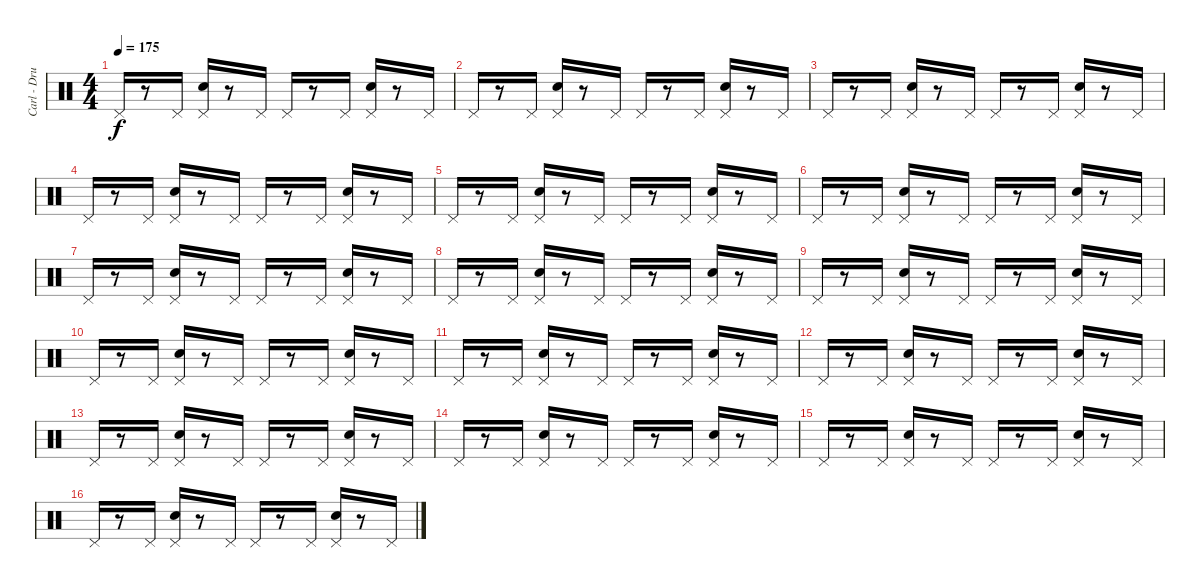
\track ("Carl - Drums II" "Carl - Dru") {instrument percussion}
\staff {score}
\articulation defaults
\ts (4 4)
\tempo 175
\clef neutral
\ks c "Pedal Hi-Hat (hit)".16{dy f}
r.8 "Pedal Hi-Hat (hit)".16 ("Pedal Hi-Hat (hit)" "Electric Snare (hit)").16 r.8 "Pedal Hi-Hat (hit)".16 "Pedal Hi-Hat (hit)".16 r.8 "Pedal Hi-Hat (hit)".16 ("Pedal Hi-Hat (hit)" "Electric Snare (hit)").16 r.8 "Pedal Hi-Hat (hit)".16 |
"Pedal Hi-Hat (hit)".16 r.8 "Pedal Hi-Hat (hit)".16 ("Pedal Hi-Hat (hit)" "Electric Snare (hit)").16 r.8 "Pedal Hi-Hat (hit)".16 "Pedal Hi-Hat (hit)".16 r.8 "Pedal Hi-Hat (hit)".16 ("Pedal Hi-Hat (hit)" "Electric Snare (hit)").16 r.8 "Pedal Hi-Hat (hit)".16 |
"Pedal Hi-Hat (hit)".16 r.8 "Pedal Hi-Hat (hit)".16 ("Pedal Hi-Hat (hit)" "Electric Snare (hit)").16 r.8 "Pedal Hi-Hat (hit)".16 "Pedal Hi-Hat (hit)".16 r.8 "Pedal Hi-Hat (hit)".16 ("Pedal Hi-Hat (hit)" "Electric Snare (hit)").16 r.8 "Pedal Hi-Hat (hit)".16 |
"Pedal Hi-Hat (hit)".16 r.8 "Pedal Hi-Hat (hit)".16 ("Pedal Hi-Hat (hit)" "Electric Snare (hit)").16 r.8 "Pedal Hi-Hat (hit)".16 "Pedal Hi-Hat (hit)".16 r.8 "Pedal Hi-Hat (hit)".16 ("Pedal Hi-Hat (hit)" "Electric Snare (hit)").16 r.8 "Pedal Hi-Hat (hit)".16 |
"Pedal Hi-Hat (hit)".16 r.8 "Pedal Hi-Hat (hit)".16 ("Pedal Hi-Hat (hit)" "Electric Snare (hit)").16 r.8 "Pedal Hi-Hat (hit)".16 "Pedal Hi-Hat (hit)".16 r.8 "Pedal Hi-Hat (hit)".16 ("Pedal Hi-Hat (hit)" "Electric Snare (hit)").16 r.8 "Pedal Hi-Hat (hit)".16 |
"Pedal Hi-Hat (hit)".16 r.8 "Pedal Hi-Hat (hit)".16 ("Pedal Hi-Hat (hit)" "Electric Snare (hit)").16 r.8 "Pedal Hi-Hat (hit)".16 "Pedal Hi-Hat (hit)".16 r.8 "Pedal Hi-Hat (hit)".16 ("Pedal Hi-Hat (hit)" "Electric Snare (hit)").16 r.8 "Pedal Hi-Hat (hit)".16 |
"Pedal Hi-Hat (hit)".16 r.8 "Pedal Hi-Hat (hit)".16 ("Pedal Hi-Hat (hit)" "Electric Snare (hit)").16 r.8 "Pedal Hi-Hat (hit)".16 "Pedal Hi-Hat (hit)".16 r.8 "Pedal Hi-Hat (hit)".16 ("Pedal Hi-Hat (hit)" "Electric Snare (hit)").16 r.8 "Pedal Hi-Hat (hit)".16 |
"Pedal Hi-Hat (hit)".16 r.8 "Pedal Hi-Hat (hit)".16 ("Pedal Hi-Hat (hit)" "Electric Snare (hit)").16 r.8 "Pedal Hi-Hat (hit)".16 "Pedal Hi-Hat (hit)".16 r.8 "Pedal Hi-Hat (hit)".16 ("Pedal Hi-Hat (hit)" "Electric Snare (hit)").16 r.8 "Pedal Hi-Hat (hit)".16 |
"Pedal Hi-Hat (hit)".16 r.8 "Pedal Hi-Hat (hit)".16 ("Pedal Hi-Hat (hit)" "Electric Snare (hit)").16 r.8 "Pedal Hi-Hat (hit)".16 "Pedal Hi-Hat (hit)".16 r.8 "Pedal Hi-Hat (hit)".16 ("Pedal Hi-Hat (hit)" "Electric Snare (hit)").16 r.8 "Pedal Hi-Hat (hit)".16 |
"Pedal Hi-Hat (hit)".16 r.8 "Pedal Hi-Hat (hit)".16 ("Pedal Hi-Hat (hit)" "Electric Snare (hit)").16 r.8 "Pedal Hi-Hat (hit)".16 "Pedal Hi-Hat (hit)".16 r.8 "Pedal Hi-Hat (hit)".16 ("Pedal Hi-Hat (hit)" "Electric Snare (hit)").16 r.8 "Pedal Hi-Hat (hit)".16 |
"Pedal Hi-Hat (hit)".16 r.8 "Pedal Hi-Hat (hit)".16 ("Pedal Hi-Hat (hit)" "Electric Snare (hit)").16 r.8 "Pedal Hi-Hat (hit)".16 "Pedal Hi-Hat (hit)".16 r.8 "Pedal Hi-Hat (hit)".16 ("Pedal Hi-Hat (hit)" "Electric Snare (hit)").16 r.8 "Pedal Hi-Hat (hit)".16 |
"Pedal Hi-Hat (hit)".16 r.8 "Pedal Hi-Hat (hit)".16 ("Pedal Hi-Hat (hit)" "Electric Snare (hit)").16 r.8 "Pedal Hi-Hat (hit)".16 "Pedal Hi-Hat (hit)".16 r.8 "Pedal Hi-Hat (hit)".16 ("Pedal Hi-Hat (hit)" "Electric Snare (hit)").16 r.8 "Pedal Hi-Hat (hit)".16 |
"Pedal Hi-Hat (hit)".16 r.8 "Pedal Hi-Hat (hit)".16 ("Pedal Hi-Hat (hit)" "Electric Snare (hit)").16 r.8 "Pedal Hi-Hat (hit)".16 "Pedal Hi-Hat (hit)".16 r.8 "Pedal Hi-Hat (hit)".16 ("Pedal Hi-Hat (hit)" "Electric Snare (hit)").16 r.8 "Pedal Hi-Hat (hit)".16 |
"Pedal Hi-Hat (hit)".16 r.8 "Pedal Hi-Hat (hit)".16 ("Pedal Hi-Hat (hit)" "Electric Snare (hit)").16 r.8 "Pedal Hi-Hat (hit)".16 "Pedal Hi-Hat (hit)".16 r.8 "Pedal Hi-Hat (hit)".16 ("Pedal Hi-Hat (hit)" "Electric Snare (hit)").16 r.8 "Pedal Hi-Hat (hit)".16 |
"Pedal Hi-Hat (hit)".16 r.8 "Pedal Hi-Hat (hit)".16 ("Pedal Hi-Hat (hit)" "Electric Snare (hit)").16 r.8 "Pedal Hi-Hat (hit)".16 "Pedal Hi-Hat (hit)".16 r.8 "Pedal Hi-Hat (hit)".16 ("Pedal Hi-Hat (hit)" "Electric Snare (hit)").16 r.8 "Pedal Hi-Hat (hit)".16 |
"Pedal Hi-Hat (hit)".16 r.8 "Pedal Hi-Hat (hit)".16 ("Pedal Hi-Hat (hit)" "Electric Snare (hit)").16 r.8 "Pedal Hi-Hat (hit)".16 "Pedal Hi-Hat (hit)".16 r.8 "Pedal Hi-Hat (hit)".16 ("Pedal Hi-Hat (hit)" "Electric Snare (hit)").16 r.8 "Pedal Hi-Hat (hit)".16
